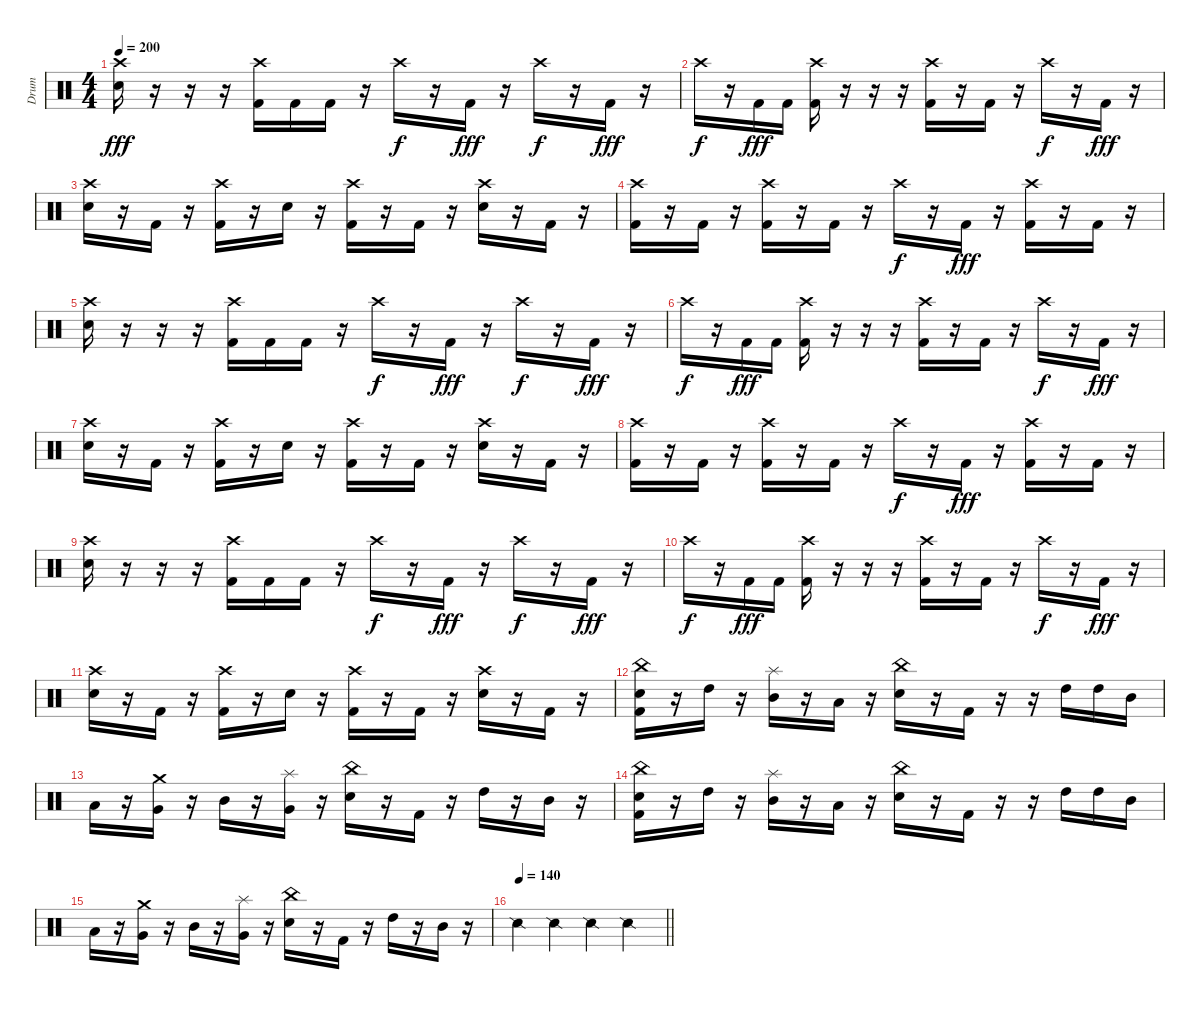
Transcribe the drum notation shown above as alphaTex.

\track ("Drum" "Drum") {instrument percussion}
\staff {score}
\articulation defaults
\ts (4 4)
\tempo 200
\clef neutral
\ks c
("Crash high (hit)" "Electric Snare (hit)").16{dy fff} r.16 r.16 r.16 ("Crash high (hit)" "Kick (hit) 2").16 "Kick (hit) 2".16 "Kick (hit) 2".16 r.16 "Crash high (hit)".16{dy f} r.16 "Kick (hit) 2".16{dy fff} r.16 "Crash high (hit)".16{dy f} r.16 "Kick (hit) 2".16{dy fff} r.16 |
"Crash high (hit)".16{dy f} r.16 "Kick (hit) 2".16{dy fff} "Kick (hit) 2".16 ("Crash high (hit)" "Kick (hit) 2").16 r.16 r.16 r.16 ("Crash high (hit)" "Kick (hit) 2").16 r.16 "Kick (hit) 2".16 r.16 "Crash high (hit)".16{dy f} r.16 "Kick (hit) 2".16{dy fff} r.16 |
("Crash high (hit)" "Electric Snare (hit)").16 r.16 "Kick (hit) 2".16 r.16 ("Crash high (hit)" "Kick (hit) 2").16 r.16 "Electric Snare (hit)".16 r.16 ("Crash high (hit)" "Kick (hit) 2").16 r.16 "Kick (hit) 2".16 r.16 ("Crash high (hit)" "Electric Snare (hit)").16 r.16 "Kick (hit) 2".16 r.16 |
("Crash high (hit)" "Kick (hit) 2").16 r.16 "Kick (hit) 2".16 r.16 ("Crash high (hit)" "Kick (hit) 2").16 r.16 "Kick (hit) 2".16 r.16 "Crash high (hit)".16{dy f} r.16 "Kick (hit) 2".16{dy fff} r.16 ("Crash high (hit)" "Kick (hit) 2").16 r.16 "Kick (hit) 2".16 r.16 |
("Crash high (hit)" "Electric Snare (hit)").16 r.16 r.16 r.16 ("Crash high (hit)" "Kick (hit) 2").16 "Kick (hit) 2".16 "Kick (hit) 2".16 r.16 "Crash high (hit)".16{dy f} r.16 "Kick (hit) 2".16{dy fff} r.16 "Crash high (hit)".16{dy f} r.16 "Kick (hit) 2".16{dy fff} r.16 |
"Crash high (hit)".16{dy f} r.16 "Kick (hit) 2".16{dy fff} "Kick (hit) 2".16 ("Crash high (hit)" "Kick (hit) 2").16 r.16 r.16 r.16 ("Crash high (hit)" "Kick (hit) 2").16 r.16 "Kick (hit) 2".16 r.16 "Crash high (hit)".16{dy f} r.16 "Kick (hit) 2".16{dy fff} r.16 |
("Crash high (hit)" "Electric Snare (hit)").16 r.16 "Kick (hit) 2".16 r.16 ("Crash high (hit)" "Kick (hit) 2").16 r.16 "Electric Snare (hit)".16 r.16 ("Crash high (hit)" "Kick (hit) 2").16 r.16 "Kick (hit) 2".16 r.16 ("Crash high (hit)" "Electric Snare (hit)").16 r.16 "Kick (hit) 2".16 r.16 |
("Crash high (hit)" "Kick (hit) 2").16 r.16 "Kick (hit) 2".16 r.16 ("Crash high (hit)" "Kick (hit) 2").16 r.16 "Kick (hit) 2".16 r.16 "Crash high (hit)".16{dy f} r.16 "Kick (hit) 2".16{dy fff} r.16 ("Crash high (hit)" "Kick (hit) 2").16 r.16 "Kick (hit) 2".16 r.16 |
("Crash high (hit)" "Electric Snare (hit)").16 r.16 r.16 r.16 ("Crash high (hit)" "Kick (hit) 2").16 "Kick (hit) 2".16 "Kick (hit) 2".16 r.16 "Crash high (hit)".16{dy f} r.16 "Kick (hit) 2".16{dy fff} r.16 "Crash high (hit)".16{dy f} r.16 "Kick (hit) 2".16{dy fff} r.16 |
"Crash high (hit)".16{dy f} r.16 "Kick (hit) 2".16{dy fff} "Kick (hit) 2".16 ("Crash high (hit)" "Kick (hit) 2").16 r.16 r.16 r.16 ("Crash high (hit)" "Kick (hit) 2").16 r.16 "Kick (hit) 2".16 r.16 "Crash high (hit)".16{dy f} r.16 "Kick (hit) 2".16{dy fff} r.16 |
("Crash high (hit)" "Electric Snare (hit)").16 r.16 "Kick (hit) 2".16 r.16 ("Crash high (hit)" "Kick (hit) 2").16 r.16 "Electric Snare (hit)".16 r.16 ("Crash high (hit)" "Kick (hit) 2").16 r.16 "Kick (hit) 2".16 r.16 ("Crash high (hit)" "Electric Snare (hit)").16 r.16 "Kick (hit) 2".16 r.16 |
("China (hit)" "Electric Snare (hit)" "Kick (hit) 2").16 r.16 "High Tom (hit)".16 r.16 ("Splash (hit)" "Mid Tom (hit)").16 r.16 "Low Tom (hit)".16 r.16 ("China (hit)" "Electric Snare (hit)").16 r.16 "Kick (hit) 2".16 r.16 r.16 "High Tom (hit)".16 "High Tom (hit)".16 "Mid Tom (hit)".16 |
"Low Tom (hit)".16 r.16 ("Crash medium (hit)" "Very Low Tom (hit)").16 r.16 "Mid Tom (hit)".16 r.16 ("Splash (hit)" "Very Low Tom (hit)").16 r.16 ("China (hit)" "Electric Snare (hit)").16 r.16 "Kick (hit) 2".16 r.16 "High Tom (hit)".16 r.16 "Mid Tom (hit)".16 r.16 |
("China (hit)" "Electric Snare (hit)" "Kick (hit) 2").16 r.16 "High Tom (hit)".16 r.16 ("Splash (hit)" "Mid Tom (hit)").16 r.16 "Low Tom (hit)".16 r.16 ("China (hit)" "Electric Snare (hit)").16 r.16 "Kick (hit) 2".16 r.16 r.16 "High Tom (hit)".16 "High Tom (hit)".16 "Mid Tom (hit)".16 |
"Low Tom (hit)".16 r.16 ("Crash medium (hit)" "Very Low Tom (hit)").16 r.16 "Mid Tom (hit)".16 r.16 ("Splash (hit)" "Very Low Tom (hit)").16 r.16 ("China (hit)" "Electric Snare (hit)").16 r.16 "Kick (hit) 2".16 r.16 "High Tom (hit)".16 r.16 "Mid Tom (hit)".16 r.16 |
\tempo 140
\barLineRight lightlight "Snare (side stick) 2".4 "Snare (side stick) 2".4 "Snare (side stick) 2".4 "Snare (side stick) 2".4
